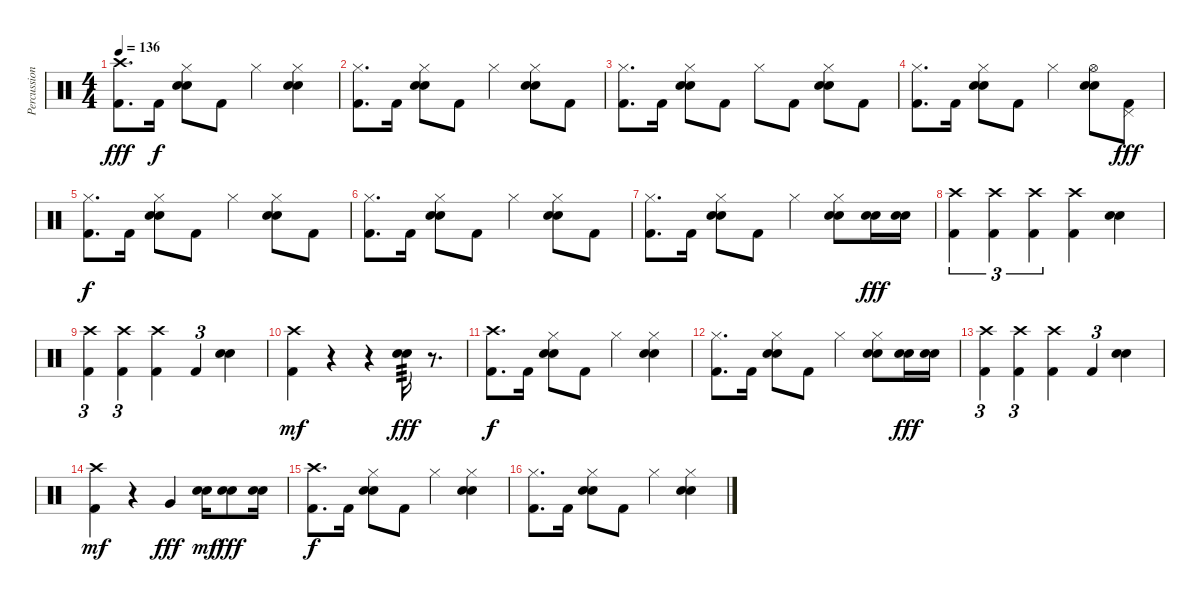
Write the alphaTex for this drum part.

\track ("Percussion" "Percussion") {instrument percussion}
\staff {score}
\articulation defaults
\ts (4 4)
\tempo 136
\clef neutral
\ks c
("Crash high (hit)" "Kick (hit) 2").8{d dy fff} "Kick (hit) 2".16{dy f} ("Hi-Hat (closed)" "Electric Snare (hit)" "Snare (hit) 2").8 "Kick (hit) 2".8 "Hi-Hat (closed)".4 ("Hi-Hat (closed)" "Electric Snare (hit)" "Snare (hit) 2").4 |
("Hi-Hat (closed)" "Kick (hit) 2").8{d} "Kick (hit) 2".16 ("Hi-Hat (closed)" "Electric Snare (hit)" "Snare (hit) 2").8 "Kick (hit) 2".8 "Hi-Hat (closed)".4 ("Hi-Hat (closed)" "Electric Snare (hit)" "Snare (hit) 2").8 "Kick (hit) 2".8 |
("Hi-Hat (closed)" "Kick (hit) 2").8{d} "Kick (hit) 2".16 ("Hi-Hat (closed)" "Electric Snare (hit)" "Snare (hit) 2").8 "Kick (hit) 2".8 "Hi-Hat (closed)".8 "Kick (hit) 2".8 ("Hi-Hat (closed)" "Electric Snare (hit)" "Snare (hit) 2").8 "Kick (hit) 2".8 |
("Hi-Hat (closed)" "Kick (hit) 2").8{d} "Kick (hit) 2".16 ("Hi-Hat (closed)" "Electric Snare (hit)" "Snare (hit) 2").8 "Kick (hit) 2".8 "Hi-Hat (closed)".4 ("Hi-Hat (open)" "Electric Snare (hit)" "Snare (hit) 2").8 ("Pedal Hi-Hat (hit)" "Kick (hit) 2").8{dy fff} |
("Hi-Hat (closed)" "Kick (hit) 2").8{d dy f} "Kick (hit) 2".16 ("Hi-Hat (closed)" "Electric Snare (hit)" "Snare (hit) 2").8 "Kick (hit) 2".8 "Hi-Hat (closed)".4 ("Hi-Hat (closed)" "Electric Snare (hit)" "Snare (hit) 2").8 "Kick (hit) 2".8 |
("Hi-Hat (closed)" "Kick (hit) 2").8{d} "Kick (hit) 2".16 ("Hi-Hat (closed)" "Electric Snare (hit)" "Snare (hit) 2").8 "Kick (hit) 2".8 "Hi-Hat (closed)".4 ("Hi-Hat (closed)" "Electric Snare (hit)" "Snare (hit) 2").8 "Kick (hit) 2".8 |
("Hi-Hat (closed)" "Kick (hit) 2").8{d} "Kick (hit) 2".16 ("Hi-Hat (closed)" "Electric Snare (hit)" "Snare (hit) 2").8 "Kick (hit) 2".8 "Hi-Hat (closed)".4 ("Hi-Hat (closed)" "Electric Snare (hit)" "Snare (hit) 2").8 ("Electric Snare (hit)" "Snare (hit) 2").16{dy fff} ("Electric Snare (hit)" "Snare (hit) 2").16 |
("Crash high (hit)" "Kick (hit) 2").4{tu (3 2)} ("Crash high (hit)" "Kick (hit) 2").4{tu (3 2)} ("Crash high (hit)" "Kick (hit) 2").4{tu (3 2)} ("Crash high (hit)" "Kick (hit) 2").4 ("Electric Snare (hit)" "Snare (hit) 2").4 |
("Crash high (hit)" "Kick (hit) 2").4{tu (3 2)} ("Crash high (hit)" "Kick (hit) 2").4{tu (3 2)} ("Crash high (hit)" "Kick (hit) 2").4 "Kick (hit) 2".4{tu (3 2)} ("Electric Snare (hit)" "Snare (hit) 2").4 |
("Crash high (hit)" "Kick (hit) 2").4{dy mf} r.4 r.4 ("Electric Snare (hit)" "Snare (hit) 2").16{tp 3 dy fff} r.8{d} |
("Crash high (hit)" "Kick (hit) 2").8{d dy f} "Kick (hit) 2".16 ("Hi-Hat (closed)" "Electric Snare (hit)" "Snare (hit) 2").8 "Kick (hit) 2".8 "Hi-Hat (closed)".4 ("Hi-Hat (closed)" "Electric Snare (hit)" "Snare (hit) 2").4 |
("Hi-Hat (closed)" "Kick (hit) 2").8{d} "Kick (hit) 2".16 ("Hi-Hat (closed)" "Electric Snare (hit)" "Snare (hit) 2").8 "Kick (hit) 2".8 "Hi-Hat (closed)".4 ("Hi-Hat (closed)" "Electric Snare (hit)" "Snare (hit) 2").8 ("Electric Snare (hit)" "Snare (hit) 2").16{dy fff} ("Electric Snare (hit)" "Snare (hit) 2").16 |
("Crash high (hit)" "Kick (hit) 2").4{tu (3 2)} ("Crash high (hit)" "Kick (hit) 2").4{tu (3 2)} ("Crash high (hit)" "Kick (hit) 2").4 "Kick (hit) 2".4{tu (3 2)} ("Electric Snare (hit)" "Snare (hit) 2").4 |
("Crash high (hit)" "Kick (hit) 2").4{dy mf} r.4 "Very Low Tom (hit)".4{dy fff} ("Electric Snare (hit)" "Snare (hit) 2").16{dy mf} ("Electric Snare (hit)" "Snare (hit) 2").8{dy fff} ("Electric Snare (hit)" "Snare (hit) 2").16 |
("Crash high (hit)" "Kick (hit) 2").8{d dy f} "Kick (hit) 2".16 ("Hi-Hat (closed)" "Electric Snare (hit)" "Snare (hit) 2").8 "Kick (hit) 2".8 "Hi-Hat (closed)".4 ("Hi-Hat (closed)" "Electric Snare (hit)" "Snare (hit) 2").4 |
("Hi-Hat (closed)" "Kick (hit) 2").8{d} "Kick (hit) 2".16 ("Hi-Hat (closed)" "Electric Snare (hit)" "Snare (hit) 2").8 "Kick (hit) 2".8 "Hi-Hat (closed)".4 ("Hi-Hat (closed)" "Electric Snare (hit)" "Snare (hit) 2").4
